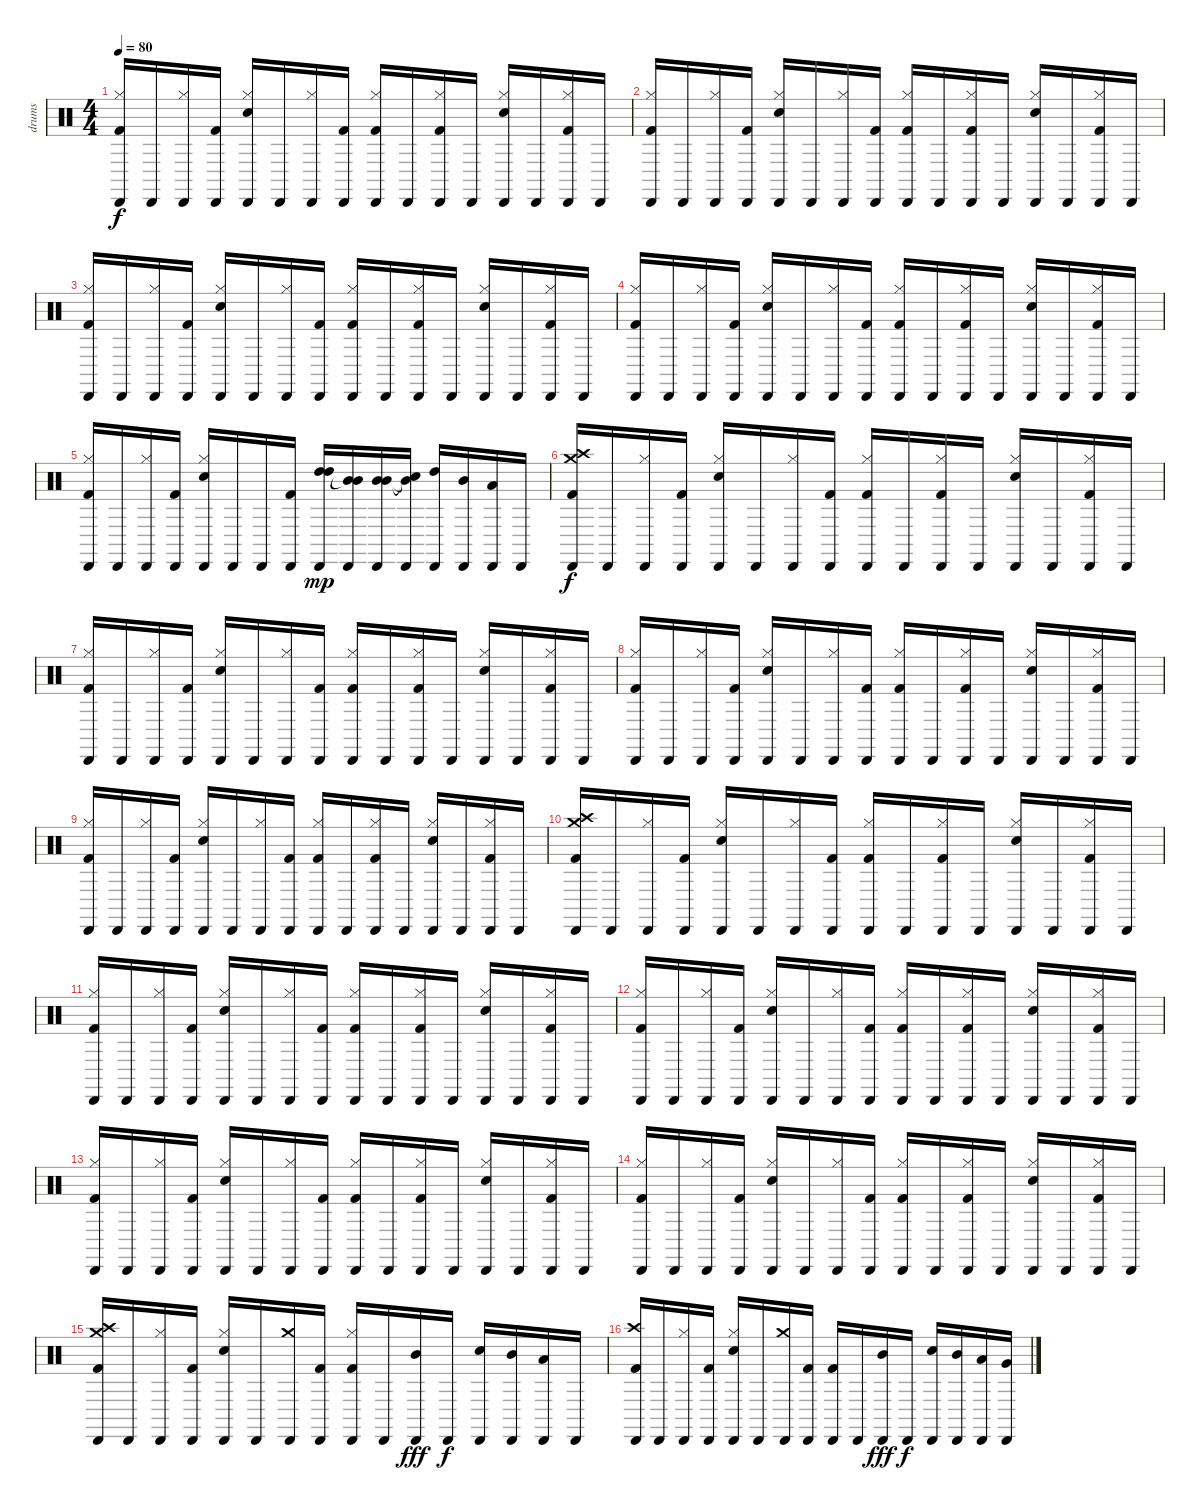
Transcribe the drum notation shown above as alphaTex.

\track ("drums" "drums") {instrument percussion}
\staff {score}
\articulation defaults
\ts (4 4)
\tempo 80
\clef neutral
\ks c
("Cabasa (hit)" "Hi-Hat (closed)" "Kick (hit) 2").16{dy f} "Cabasa (hit)".16 ("Cabasa (hit)" "Hi-Hat (closed)").16 ("Cabasa (hit)" "Kick (hit) 2").16 ("Cabasa (hit)" "Hi-Hat (closed)" "Electric Snare (hit)").16 "Cabasa (hit)".16 ("Cabasa (hit)" "Hi-Hat (closed)").16 ("Cabasa (hit)" "Kick (hit) 2").16 ("Cabasa (hit)" "Hi-Hat (closed)" "Kick (hit) 2").16 "Cabasa (hit)".16 ("Cabasa (hit)" "Hi-Hat (closed)" "Kick (hit) 2").16 "Cabasa (hit)".16 ("Cabasa (hit)" "Hi-Hat (closed)" "Electric Snare (hit)").16 "Cabasa (hit)".16 ("Cabasa (hit)" "Hi-Hat (closed)" "Kick (hit) 2").16 "Cabasa (hit)".16 |
("Cabasa (hit)" "Hi-Hat (closed)" "Kick (hit) 2").16 "Cabasa (hit)".16 ("Cabasa (hit)" "Hi-Hat (closed)").16 ("Cabasa (hit)" "Kick (hit) 2").16 ("Cabasa (hit)" "Hi-Hat (closed)" "Electric Snare (hit)").16 "Cabasa (hit)".16 ("Cabasa (hit)" "Hi-Hat (closed)").16 ("Cabasa (hit)" "Kick (hit) 2").16 ("Cabasa (hit)" "Hi-Hat (closed)" "Kick (hit) 2").16 "Cabasa (hit)".16 ("Cabasa (hit)" "Hi-Hat (closed)" "Kick (hit) 2").16 "Cabasa (hit)".16 ("Cabasa (hit)" "Hi-Hat (closed)" "Electric Snare (hit)").16 "Cabasa (hit)".16 ("Cabasa (hit)" "Hi-Hat (closed)" "Kick (hit) 2").16 "Cabasa (hit)".16 |
("Cabasa (hit)" "Hi-Hat (closed)" "Kick (hit) 2").16 "Cabasa (hit)".16 ("Cabasa (hit)" "Hi-Hat (closed)").16 ("Cabasa (hit)" "Kick (hit) 2").16 ("Cabasa (hit)" "Hi-Hat (closed)" "Electric Snare (hit)").16 "Cabasa (hit)".16 ("Cabasa (hit)" "Hi-Hat (closed)").16 ("Cabasa (hit)" "Kick (hit) 2").16 ("Cabasa (hit)" "Hi-Hat (closed)" "Kick (hit) 2").16 "Cabasa (hit)".16 ("Cabasa (hit)" "Hi-Hat (closed)" "Kick (hit) 2").16 "Cabasa (hit)".16 ("Cabasa (hit)" "Hi-Hat (closed)" "Electric Snare (hit)").16 "Cabasa (hit)".16 ("Cabasa (hit)" "Hi-Hat (closed)" "Kick (hit) 2").16 "Cabasa (hit)".16 |
("Cabasa (hit)" "Hi-Hat (closed)" "Kick (hit) 2").16 "Cabasa (hit)".16 ("Cabasa (hit)" "Hi-Hat (closed)").16 ("Cabasa (hit)" "Kick (hit) 2").16 ("Cabasa (hit)" "Hi-Hat (closed)" "Electric Snare (hit)").16 "Cabasa (hit)".16 ("Cabasa (hit)" "Hi-Hat (closed)").16 ("Cabasa (hit)" "Kick (hit) 2").16 ("Cabasa (hit)" "Hi-Hat (closed)" "Kick (hit) 2").16 "Cabasa (hit)".16 ("Cabasa (hit)" "Hi-Hat (closed)" "Kick (hit) 2").16 "Cabasa (hit)".16 ("Cabasa (hit)" "Hi-Hat (closed)" "Electric Snare (hit)").16 "Cabasa (hit)".16 ("Cabasa (hit)" "Hi-Hat (closed)" "Kick (hit) 2").16 "Cabasa (hit)".16 |
("Cabasa (hit)" "Kick (hit) 2" "Hi-Hat (closed)").16 "Cabasa (hit)".16 ("Cabasa (hit)" "Hi-Hat (closed)").16 ("Cabasa (hit)" "Kick (hit) 2").16 ("Cabasa (hit)" "Electric Snare (hit)" "Hi-Hat (closed)").16 "Cabasa (hit)".16 "Cabasa (hit)".16 ("Cabasa (hit)" "Kick (hit) 2").16 ("High Tom (hit)" "High Tom (hit)" "Cabasa (hit)").16{dy mp} ("Mid Tom (hit)"{t} "Mid Tom (hit)"{t} "Cabasa (hit)").16 ("Mid Tom (hit)" "Mid Tom (hit)" "Cabasa (hit)").16 ("Mid Tom (hit)"{t} "Snare (hit)"{t} "Cabasa (hit)").16 ("High Tom (hit)" "Cabasa (hit)").16 ("Mid Tom (hit)" "Cabasa (hit)").16 ("Low Tom (hit)" "Cabasa (hit)").16 "Cabasa (hit)".16 |
("Cabasa (hit)" "Crash high (hit)" "Kick (hit) 2" "Crash medium (hit)").16{dy f} "Cabasa (hit)".16 ("Cabasa (hit)" "Hi-Hat (closed)").16 ("Cabasa (hit)" "Kick (hit) 2").16 ("Cabasa (hit)" "Hi-Hat (closed)" "Electric Snare (hit)").16 "Cabasa (hit)".16 ("Cabasa (hit)" "Hi-Hat (closed)").16 ("Cabasa (hit)" "Kick (hit) 2").16 ("Cabasa (hit)" "Hi-Hat (closed)" "Kick (hit) 2").16 "Cabasa (hit)".16 ("Cabasa (hit)" "Hi-Hat (closed)" "Kick (hit) 2").16 "Cabasa (hit)".16 ("Cabasa (hit)" "Hi-Hat (closed)" "Electric Snare (hit)").16 "Cabasa (hit)".16 ("Cabasa (hit)" "Hi-Hat (closed)" "Kick (hit) 2").16 "Cabasa (hit)".16 |
("Cabasa (hit)" "Hi-Hat (closed)" "Kick (hit) 2").16 "Cabasa (hit)".16 ("Cabasa (hit)" "Hi-Hat (closed)").16 ("Cabasa (hit)" "Kick (hit) 2").16 ("Cabasa (hit)" "Hi-Hat (closed)" "Electric Snare (hit)").16 "Cabasa (hit)".16 ("Cabasa (hit)" "Hi-Hat (closed)").16 ("Cabasa (hit)" "Kick (hit) 2").16 ("Cabasa (hit)" "Hi-Hat (closed)" "Kick (hit) 2").16 "Cabasa (hit)".16 ("Cabasa (hit)" "Hi-Hat (closed)" "Kick (hit) 2").16 "Cabasa (hit)".16 ("Cabasa (hit)" "Hi-Hat (closed)" "Electric Snare (hit)").16 "Cabasa (hit)".16 ("Cabasa (hit)" "Hi-Hat (closed)" "Kick (hit) 2").16 "Cabasa (hit)".16 |
("Cabasa (hit)" "Hi-Hat (closed)" "Kick (hit) 2").16 "Cabasa (hit)".16 ("Cabasa (hit)" "Hi-Hat (closed)").16 ("Cabasa (hit)" "Kick (hit) 2").16 ("Cabasa (hit)" "Hi-Hat (closed)" "Electric Snare (hit)").16 "Cabasa (hit)".16 ("Cabasa (hit)" "Hi-Hat (closed)").16 ("Cabasa (hit)" "Kick (hit) 2").16 ("Cabasa (hit)" "Hi-Hat (closed)" "Kick (hit) 2").16 "Cabasa (hit)".16 ("Cabasa (hit)" "Hi-Hat (closed)" "Kick (hit) 2").16 "Cabasa (hit)".16 ("Cabasa (hit)" "Hi-Hat (closed)" "Electric Snare (hit)").16 "Cabasa (hit)".16 ("Cabasa (hit)" "Hi-Hat (closed)" "Kick (hit) 2").16 "Cabasa (hit)".16 |
("Cabasa (hit)" "Hi-Hat (closed)" "Kick (hit) 2").16 "Cabasa (hit)".16 ("Cabasa (hit)" "Hi-Hat (closed)").16 ("Cabasa (hit)" "Kick (hit) 2").16 ("Cabasa (hit)" "Hi-Hat (closed)" "Electric Snare (hit)").16 "Cabasa (hit)".16 ("Cabasa (hit)" "Hi-Hat (closed)").16 ("Cabasa (hit)" "Kick (hit) 2").16 ("Cabasa (hit)" "Hi-Hat (closed)" "Kick (hit) 2").16 "Cabasa (hit)".16 ("Cabasa (hit)" "Hi-Hat (closed)" "Kick (hit) 2").16 "Cabasa (hit)".16 ("Cabasa (hit)" "Hi-Hat (closed)" "Electric Snare (hit)").16 "Cabasa (hit)".16 ("Cabasa (hit)" "Hi-Hat (closed)" "Kick (hit) 2").16 "Cabasa (hit)".16 |
("Cabasa (hit)" "Crash medium (hit)" "Kick (hit) 2" "Crash high (hit)").16 "Cabasa (hit)".16 ("Cabasa (hit)" "Hi-Hat (closed)").16 ("Cabasa (hit)" "Kick (hit) 2").16 ("Cabasa (hit)" "Hi-Hat (closed)" "Electric Snare (hit)").16 "Cabasa (hit)".16 ("Cabasa (hit)" "Hi-Hat (closed)").16 ("Cabasa (hit)" "Kick (hit) 2").16 ("Cabasa (hit)" "Hi-Hat (closed)" "Kick (hit) 2").16 "Cabasa (hit)".16 ("Cabasa (hit)" "Hi-Hat (closed)" "Kick (hit) 2").16 "Cabasa (hit)".16 ("Cabasa (hit)" "Hi-Hat (closed)" "Electric Snare (hit)").16 "Cabasa (hit)".16 ("Cabasa (hit)" "Hi-Hat (closed)" "Kick (hit) 2").16 "Cabasa (hit)".16 |
("Cabasa (hit)" "Hi-Hat (closed)" "Kick (hit) 2").16 "Cabasa (hit)".16 ("Cabasa (hit)" "Hi-Hat (closed)").16 ("Cabasa (hit)" "Kick (hit) 2").16 ("Cabasa (hit)" "Hi-Hat (closed)" "Electric Snare (hit)").16 "Cabasa (hit)".16 ("Cabasa (hit)" "Hi-Hat (closed)").16 ("Cabasa (hit)" "Kick (hit) 2").16 ("Cabasa (hit)" "Hi-Hat (closed)" "Kick (hit) 2").16 "Cabasa (hit)".16 ("Cabasa (hit)" "Hi-Hat (closed)" "Kick (hit) 2").16 "Cabasa (hit)".16 ("Cabasa (hit)" "Hi-Hat (closed)" "Electric Snare (hit)").16 "Cabasa (hit)".16 ("Cabasa (hit)" "Hi-Hat (closed)" "Kick (hit) 2").16 "Cabasa (hit)".16 |
("Cabasa (hit)" "Hi-Hat (closed)" "Kick (hit) 2").16 "Cabasa (hit)".16 ("Cabasa (hit)" "Hi-Hat (closed)").16 ("Cabasa (hit)" "Kick (hit) 2").16 ("Cabasa (hit)" "Hi-Hat (closed)" "Electric Snare (hit)").16 "Cabasa (hit)".16 ("Cabasa (hit)" "Hi-Hat (closed)").16 ("Cabasa (hit)" "Kick (hit) 2").16 ("Cabasa (hit)" "Hi-Hat (closed)" "Kick (hit) 2").16 "Cabasa (hit)".16 ("Cabasa (hit)" "Hi-Hat (closed)" "Kick (hit) 2").16 "Cabasa (hit)".16 ("Cabasa (hit)" "Hi-Hat (closed)" "Electric Snare (hit)").16 "Cabasa (hit)".16 ("Cabasa (hit)" "Hi-Hat (closed)" "Kick (hit) 2").16 "Cabasa (hit)".16 |
("Cabasa (hit)" "Hi-Hat (closed)" "Kick (hit) 2").16 "Cabasa (hit)".16 ("Cabasa (hit)" "Hi-Hat (closed)").16 ("Cabasa (hit)" "Kick (hit) 2").16 ("Cabasa (hit)" "Hi-Hat (closed)" "Electric Snare (hit)").16 "Cabasa (hit)".16 ("Cabasa (hit)" "Hi-Hat (closed)").16 ("Cabasa (hit)" "Kick (hit) 2").16 ("Cabasa (hit)" "Hi-Hat (closed)" "Kick (hit) 2").16 "Cabasa (hit)".16 ("Cabasa (hit)" "Hi-Hat (closed)" "Kick (hit) 2").16 "Cabasa (hit)".16 ("Cabasa (hit)" "Hi-Hat (closed)" "Electric Snare (hit)").16 "Cabasa (hit)".16 ("Cabasa (hit)" "Hi-Hat (closed)" "Kick (hit) 2").16 "Cabasa (hit)".16 |
("Cabasa (hit)" "Hi-Hat (closed)" "Kick (hit) 2").16 "Cabasa (hit)".16 ("Cabasa (hit)" "Hi-Hat (closed)").16 ("Cabasa (hit)" "Kick (hit) 2").16 ("Cabasa (hit)" "Hi-Hat (closed)" "Electric Snare (hit)").16 "Cabasa (hit)".16 ("Cabasa (hit)" "Hi-Hat (closed)").16 ("Cabasa (hit)" "Kick (hit) 2").16 ("Cabasa (hit)" "Hi-Hat (closed)" "Kick (hit) 2").16 "Cabasa (hit)".16 ("Cabasa (hit)" "Hi-Hat (closed)" "Kick (hit) 2").16 "Cabasa (hit)".16 ("Cabasa (hit)" "Hi-Hat (closed)" "Electric Snare (hit)").16 "Cabasa (hit)".16 ("Cabasa (hit)" "Hi-Hat (closed)" "Kick (hit) 2").16 "Cabasa (hit)".16 |
("Cabasa (hit)" "Crash medium (hit)" "Kick (hit) 2" "Crash high (hit)").16 "Cabasa (hit)".16 ("Cabasa (hit)" "Hi-Hat (closed)").16 ("Cabasa (hit)" "Kick (hit) 2").16 ("Cabasa (hit)" "Hi-Hat (closed)" "Electric Snare (hit)").16 "Cabasa (hit)".16 ("Cabasa (hit)" "Crash medium (hit)").16 ("Cabasa (hit)" "Kick (hit) 2").16 ("Cabasa (hit)" "Hi-Hat (closed)" "Kick (hit) 2").16 "Cabasa (hit)".16 ("Cabasa (hit)" "Mid Tom (hit)").16{dy fff} "Cabasa (hit)".16{dy f} ("Cabasa (hit)" "Electric Snare (hit)").16 ("Cabasa (hit)" "Mid Tom (hit)").16 ("Cabasa (hit)" "Low Tom (hit)").16 "Cabasa (hit)".16 |
("Cabasa (hit)" "Kick (hit) 2" "Crash high (hit)").16 "Cabasa (hit)".16 ("Cabasa (hit)" "Hi-Hat (closed)").16 ("Cabasa (hit)" "Kick (hit) 2").16 ("Cabasa (hit)" "Electric Snare (hit)" "Hi-Hat (closed)").16 "Cabasa (hit)".16 ("Cabasa (hit)" "Crash medium (hit)").16 ("Cabasa (hit)" "Kick (hit) 2").16 ("Cabasa (hit)" "Kick (hit) 2").16 "Cabasa (hit)".16 ("Cabasa (hit)" "Mid Tom (hit)").16{dy fff} "Cabasa (hit)".16{dy f} ("Cabasa (hit)" "Electric Snare (hit)").16 ("Cabasa (hit)" "Mid Tom (hit)").16 ("Cabasa (hit)" "Low Tom (hit)").16 ("Cabasa (hit)" "Very Low Tom (hit)").16
